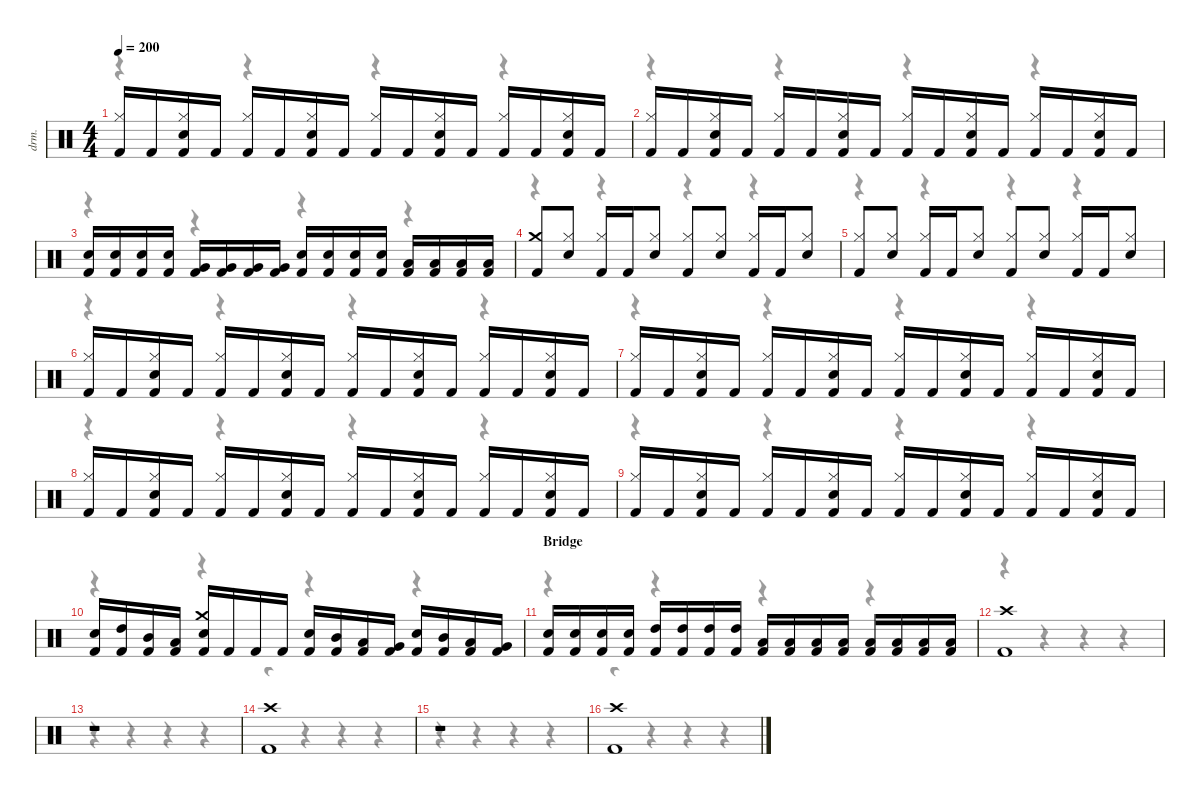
\defaultSystemsLayout 4
\hideDynamics
\bracketExtendMode nobrackets
\otherSystemsTrackNameOrientation horizontal
\track ("David Mackintosh (Drums)" "drm.") {instrument percussion}
\staff {score}
\articulation defaults
\voice
\ts (4 4)
\tempo 200
\clef neutral
\ks c
("Kick (hit) 2" "Hi-Hat (closed)").16{dy f} "Kick (hit) 2".16 ("Kick (hit) 2" "Snare (hit) 2" "Hi-Hat (closed)").16 "Kick (hit) 2".16 ("Kick (hit) 2" "Hi-Hat (closed)").16 "Kick (hit) 2".16 ("Kick (hit) 2" "Snare (hit) 2" "Hi-Hat (closed)").16 "Kick (hit) 2".16 ("Kick (hit) 2" "Hi-Hat (closed)").16 "Kick (hit) 2".16 ("Kick (hit) 2" "Snare (hit) 2" "Hi-Hat (closed)").16 "Kick (hit) 2".16 ("Kick (hit) 2" "Hi-Hat (closed)").16 "Kick (hit) 2".16 ("Kick (hit) 2" "Snare (hit) 2" "Hi-Hat (closed)").16 "Kick (hit) 2".16 |
("Kick (hit) 2" "Hi-Hat (closed)").16 "Kick (hit) 2".16 ("Kick (hit) 2" "Snare (hit) 2" "Hi-Hat (closed)").16 "Kick (hit) 2".16 ("Kick (hit) 2" "Hi-Hat (closed)").16 "Kick (hit) 2".16 ("Kick (hit) 2" "Snare (hit) 2" "Hi-Hat (closed)").16 "Kick (hit) 2".16 ("Kick (hit) 2" "Hi-Hat (closed)").16 "Kick (hit) 2".16 ("Kick (hit) 2" "Snare (hit) 2" "Hi-Hat (closed)").16 "Kick (hit) 2".16 ("Kick (hit) 2" "Hi-Hat (closed)").16 "Kick (hit) 2".16 ("Kick (hit) 2" "Snare (hit) 2" "Hi-Hat (closed)").16 "Kick (hit) 2".16 |
("Kick (hit) 2" "Snare (hit) 2").16 ("Kick (hit) 2" "Snare (hit) 2").16 ("Kick (hit) 2" "Snare (hit) 2").16 ("Kick (hit) 2" "Snare (hit) 2").16 ("Kick (hit) 2" "Very Low Tom (hit)").16 ("Kick (hit) 2" "Very Low Tom (hit)").16 ("Kick (hit) 2" "Very Low Tom (hit)").16 ("Kick (hit) 2" "Very Low Tom (hit)").16 ("Kick (hit) 2" "Snare (hit) 2").16 ("Kick (hit) 2" "Snare (hit) 2").16 ("Kick (hit) 2" "Snare (hit) 2").16 ("Kick (hit) 2" "Snare (hit) 2").16 ("Kick (hit) 2" "Low Floor Tom (hit)").16 ("Kick (hit) 2" "Low Floor Tom (hit)").16 ("Kick (hit) 2" "Low Floor Tom (hit)").16 ("Kick (hit) 2" "Low Floor Tom (hit)").16 |
("Kick (hit) 2" "Crash medium (hit)").8 ("Snare (hit) 2" "Hi-Hat (closed)").8 ("Kick (hit) 2" "Hi-Hat (closed)").16 "Kick (hit) 2".16 ("Snare (hit) 2" "Hi-Hat (closed)").8 ("Kick (hit) 2" "Hi-Hat (closed)").8 ("Snare (hit) 2" "Hi-Hat (closed)").8 ("Kick (hit) 2" "Hi-Hat (closed)").16 "Kick (hit) 2".16 ("Snare (hit) 2" "Hi-Hat (closed)").8 |
("Kick (hit) 2" "Hi-Hat (closed)").8 ("Snare (hit) 2" "Hi-Hat (closed)").8 ("Kick (hit) 2" "Hi-Hat (closed)").16 "Kick (hit) 2".16 ("Snare (hit) 2" "Hi-Hat (closed)").8 ("Kick (hit) 2" "Hi-Hat (closed)").8 ("Snare (hit) 2" "Hi-Hat (closed)").8 ("Kick (hit) 2" "Hi-Hat (closed)").16 "Kick (hit) 2".16 ("Snare (hit) 2" "Hi-Hat (closed)").8 |
("Kick (hit) 2" "Hi-Hat (closed)").16 "Kick (hit) 2".16 ("Kick (hit) 2" "Snare (hit) 2" "Hi-Hat (closed)").16 "Kick (hit) 2".16 ("Kick (hit) 2" "Hi-Hat (closed)").16 "Kick (hit) 2".16 ("Kick (hit) 2" "Snare (hit) 2" "Hi-Hat (closed)").16 "Kick (hit) 2".16 ("Kick (hit) 2" "Hi-Hat (closed)").16 "Kick (hit) 2".16 ("Kick (hit) 2" "Snare (hit) 2" "Hi-Hat (closed)").16 "Kick (hit) 2".16 ("Kick (hit) 2" "Hi-Hat (closed)").16 "Kick (hit) 2".16 ("Kick (hit) 2" "Snare (hit) 2" "Hi-Hat (closed)").16 "Kick (hit) 2".16 |
("Kick (hit) 2" "Hi-Hat (closed)").16 "Kick (hit) 2".16 ("Kick (hit) 2" "Snare (hit) 2" "Hi-Hat (closed)").16 "Kick (hit) 2".16 ("Kick (hit) 2" "Hi-Hat (closed)").16 "Kick (hit) 2".16 ("Kick (hit) 2" "Snare (hit) 2" "Hi-Hat (closed)").16 "Kick (hit) 2".16 ("Kick (hit) 2" "Hi-Hat (closed)").16 "Kick (hit) 2".16 ("Kick (hit) 2" "Snare (hit) 2" "Hi-Hat (closed)").16 "Kick (hit) 2".16 ("Kick (hit) 2" "Hi-Hat (closed)").16 "Kick (hit) 2".16 ("Kick (hit) 2" "Snare (hit) 2" "Hi-Hat (closed)").16 "Kick (hit) 2".16 |
("Kick (hit) 2" "Hi-Hat (closed)").16 "Kick (hit) 2".16 ("Kick (hit) 2" "Snare (hit) 2" "Hi-Hat (closed)").16 "Kick (hit) 2".16 ("Kick (hit) 2" "Hi-Hat (closed)").16 "Kick (hit) 2".16 ("Kick (hit) 2" "Snare (hit) 2" "Hi-Hat (closed)").16 "Kick (hit) 2".16 ("Kick (hit) 2" "Hi-Hat (closed)").16 "Kick (hit) 2".16 ("Kick (hit) 2" "Snare (hit) 2" "Hi-Hat (closed)").16 "Kick (hit) 2".16 ("Kick (hit) 2" "Hi-Hat (closed)").16 "Kick (hit) 2".16 ("Kick (hit) 2" "Snare (hit) 2" "Hi-Hat (closed)").16 "Kick (hit) 2".16 |
("Kick (hit) 2" "Hi-Hat (closed)").16 "Kick (hit) 2".16 ("Kick (hit) 2" "Snare (hit) 2" "Hi-Hat (closed)").16 "Kick (hit) 2".16 ("Kick (hit) 2" "Hi-Hat (closed)").16 "Kick (hit) 2".16 ("Kick (hit) 2" "Snare (hit) 2" "Hi-Hat (closed)").16 "Kick (hit) 2".16 ("Kick (hit) 2" "Hi-Hat (closed)").16 "Kick (hit) 2".16 ("Kick (hit) 2" "Snare (hit) 2" "Hi-Hat (closed)").16 "Kick (hit) 2".16 ("Kick (hit) 2" "Hi-Hat (closed)").16 "Kick (hit) 2".16 ("Kick (hit) 2" "Snare (hit) 2" "Hi-Hat (closed)").16 "Kick (hit) 2".16 |
("Kick (hit) 2" "Snare (hit) 2").16 ("Kick (hit) 2" "High Tom (hit)").16 ("Kick (hit) 2" "Mid Tom (hit)").16 ("Kick (hit) 2" "Low Tom (hit)").16 ("Kick (hit) 2" "Snare (hit) 2" "Crash medium (hit)").16 "Kick (hit) 2".16 "Kick (hit) 2".16 "Kick (hit) 2".16 ("Kick (hit) 2" "Snare (hit) 2").16 ("Kick (hit) 2" "Mid Tom (hit)").16 ("Kick (hit) 2" "Low Tom (hit)").16 ("Kick (hit) 2" "Very Low Tom (hit)").16 ("Kick (hit) 2" "Snare (hit) 2").16 ("Kick (hit) 2" "Mid Tom (hit)").16 ("Kick (hit) 2" "Low Tom (hit)").16 ("Kick (hit) 2" "Very Low Tom (hit)").16 |
\section ("" "Bridge")
("Kick (hit) 2" "Snare (hit) 2").16 ("Kick (hit) 2" "Snare (hit) 2").16 ("Kick (hit) 2" "Snare (hit) 2").16 ("Kick (hit) 2" "Snare (hit) 2").16 ("Kick (hit) 2" "High Tom (hit)").16 ("Kick (hit) 2" "High Tom (hit)").16 ("Kick (hit) 2" "High Tom (hit)").16 ("Kick (hit) 2" "High Tom (hit)").16 ("Kick (hit) 2" "Low Tom (hit)").16 ("Kick (hit) 2" "Low Tom (hit)").16 ("Kick (hit) 2" "Low Tom (hit)").16 ("Kick (hit) 2" "Low Tom (hit)").16 ("Kick (hit) 2" "Low Floor Tom (hit)").16 ("Kick (hit) 2" "Low Floor Tom (hit)").16 ("Kick (hit) 2" "Low Floor Tom (hit)").16 ("Kick (hit) 2" "Low Floor Tom (hit)").16 |
("Kick (hit) 2" "Crash high (hit)").1 |
r.1 |
("Kick (hit) 2" "Crash high (hit)").1 |
r.1 |
("Kick (hit) 2" "Crash high (hit)").1
\voice
\clef neutral
\ottava regular
\simile none
\ks c
r.4{dy mf} r.4 r.4 r.4 |
r.4 r.4 r.4 r.4 |
r.4 r.4 r.4 r.4 |
r.4 r.4 r.4 r.4 |
r.4 r.4 r.4 r.4 |
r.4 r.4 r.4 r.4 |
r.4 r.4 r.4 r.4 |
r.4 r.4 r.4 r.4 |
r.4 r.4 r.4 r.4 |
r.4 r.4 r.4 r.4 |
r.4 r.4 r.4 r.4 |
r.4 r.4 r.4 r.4 |
r.4 r.4 r.4 r.4 |
r.4 r.4 r.4 r.4 |
r.4 r.4 r.4 r.4 |
r.4 r.4 r.4 r.4
